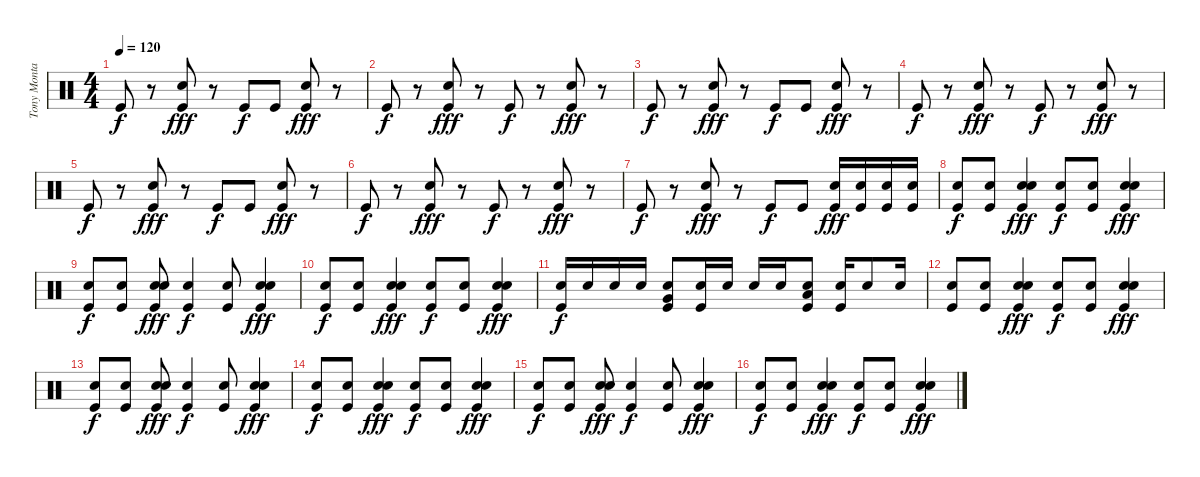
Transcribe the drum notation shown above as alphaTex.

\track ("Tony Montana" "Tony Monta") {instrument percussion}
\staff {score}
\articulation defaults
\ts (4 4)
\tempo 120
\clef neutral
\ks c "Kick (hit)".8{dy f}
r.8 ("Kick (hit)" "Snare (hit) 2").8{dy fff} r.8 "Kick (hit)".8{dy f} "Kick (hit)".8 ("Kick (hit)" "Snare (hit) 2").8{dy fff} r.8 |
"Kick (hit)".8{dy f} r.8 ("Kick (hit)" "Snare (hit) 2").8{dy fff} r.8 "Kick (hit)".8{dy f} r.8 ("Kick (hit)" "Snare (hit) 2").8{dy fff} r.8 |
"Kick (hit)".8{dy f} r.8 ("Kick (hit)" "Snare (hit) 2").8{dy fff} r.8 "Kick (hit)".8{dy f} "Kick (hit)".8 ("Kick (hit)" "Snare (hit) 2").8{dy fff} r.8 |
"Kick (hit)".8{dy f} r.8 ("Kick (hit)" "Snare (hit) 2").8{dy fff} r.8 "Kick (hit)".8{dy f} r.8 ("Kick (hit)" "Snare (hit) 2").8{dy fff} r.8 |
"Kick (hit)".8{dy f} r.8 ("Kick (hit)" "Snare (hit) 2").8{dy fff} r.8 "Kick (hit)".8{dy f} "Kick (hit)".8 ("Kick (hit)" "Snare (hit) 2").8{dy fff} r.8 |
"Kick (hit)".8{dy f} r.8 ("Kick (hit)" "Snare (hit) 2").8{dy fff} r.8 "Kick (hit)".8{dy f} r.8 ("Kick (hit)" "Snare (hit) 2").8{dy fff} r.8 |
"Kick (hit)".8{dy f} r.8 ("Kick (hit)" "Snare (hit) 2").8{dy fff} r.8 "Kick (hit)".8{dy f} "Kick (hit)".8 ("Kick (hit)" "Snare (hit) 2").16{dy fff} ("Kick (hit)" "Snare (hit) 2").16 ("Kick (hit)" "Snare (hit) 2").16 ("Kick (hit)" "Snare (hit) 2").16 |
("Kick (hit)" "Snare (hit) 2").8{dy f} ("Kick (hit)" "Snare (hit) 2").8 ("Kick (hit)" "Snare (hit) 2" "Snare (hit) 2").4{dy fff} ("Kick (hit)" "Snare (hit) 2").8{dy f} ("Kick (hit)" "Snare (hit) 2").8 ("Kick (hit)" "Snare (hit) 2" "Snare (hit) 2").4{dy fff} |
("Kick (hit)" "Snare (hit) 2").8{dy f} ("Kick (hit)" "Snare (hit) 2").8 ("Kick (hit)" "Snare (hit) 2" "Snare (hit) 2").8{dy fff} ("Kick (hit)" "Snare (hit) 2").4{dy f} ("Kick (hit)" "Snare (hit) 2").8 ("Kick (hit)" "Snare (hit) 2" "Snare (hit) 2").4{dy fff} |
("Kick (hit)" "Snare (hit) 2").8{dy f} ("Kick (hit)" "Snare (hit) 2").8 ("Kick (hit)" "Snare (hit) 2" "Snare (hit) 2").4{dy fff} ("Kick (hit)" "Snare (hit) 2").8{dy f} ("Kick (hit)" "Snare (hit) 2").8 ("Kick (hit)" "Snare (hit) 2" "Snare (hit) 2").4{dy fff} |
("Kick (hit)" "Snare (hit) 2").16{dy f} "Snare (hit) 2".16 "Snare (hit) 2".16 "Snare (hit) 2".16 ("Kick (hit)" "Snare (hit) 2" "Very Low Tom (hit)").8 ("Kick (hit)" "Snare (hit) 2").16 "Snare (hit) 2".16 "Snare (hit) 2".16 "Snare (hit) 2".16 ("Kick (hit)" "Snare (hit) 2" "Low Floor Tom (hit)").8 ("Kick (hit)" "Snare (hit) 2").16 "Snare (hit) 2".8 "Snare (hit) 2".16 |
("Kick (hit)" "Snare (hit) 2").8 ("Kick (hit)" "Snare (hit) 2").8 ("Kick (hit)" "Snare (hit) 2" "Snare (hit) 2").4{dy fff} ("Kick (hit)" "Snare (hit) 2").8{dy f} ("Kick (hit)" "Snare (hit) 2").8 ("Kick (hit)" "Snare (hit) 2" "Snare (hit) 2").4{dy fff} |
("Kick (hit)" "Snare (hit) 2").8{dy f} ("Kick (hit)" "Snare (hit) 2").8 ("Kick (hit)" "Snare (hit) 2" "Snare (hit) 2").8{dy fff} ("Kick (hit)" "Snare (hit) 2").4{dy f} ("Kick (hit)" "Snare (hit) 2").8 ("Kick (hit)" "Snare (hit) 2" "Snare (hit) 2").4{dy fff} |
("Kick (hit)" "Snare (hit) 2").8{dy f} ("Kick (hit)" "Snare (hit) 2").8 ("Kick (hit)" "Snare (hit) 2" "Snare (hit) 2").4{dy fff} ("Kick (hit)" "Snare (hit) 2").8{dy f} ("Kick (hit)" "Snare (hit) 2").8 ("Kick (hit)" "Snare (hit) 2" "Snare (hit) 2").4{dy fff} |
("Kick (hit)" "Snare (hit) 2").8{dy f} ("Kick (hit)" "Snare (hit) 2").8 ("Kick (hit)" "Snare (hit) 2" "Snare (hit) 2").8{dy fff} ("Kick (hit)" "Snare (hit) 2").4{dy f} ("Kick (hit)" "Snare (hit) 2").8 ("Kick (hit)" "Snare (hit) 2" "Snare (hit) 2").4{dy fff} |
("Kick (hit)" "Snare (hit) 2").8{dy f} ("Kick (hit)" "Snare (hit) 2").8 ("Kick (hit)" "Snare (hit) 2" "Snare (hit) 2").4{dy fff} ("Kick (hit)" "Snare (hit) 2").8{dy f} ("Kick (hit)" "Snare (hit) 2").8 ("Kick (hit)" "Snare (hit) 2" "Snare (hit) 2").4{dy fff}
